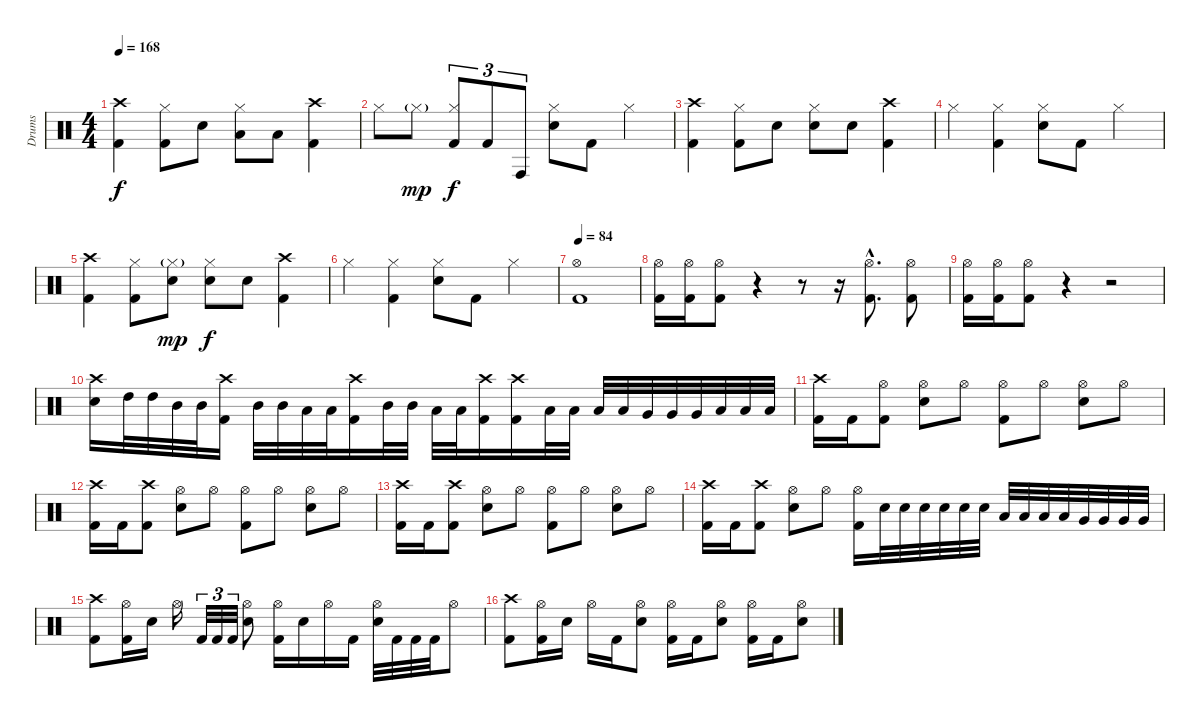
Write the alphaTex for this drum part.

\track ("Drums" "Drums") {instrument percussion}
\staff {score}
\articulation defaults
\ts (4 4)
\tempo 168
\clef neutral
\ks c
("Crash high (hit)" "Kick (hit) 2").4{dy f} ("Hi-Hat (closed)" "Kick (hit) 2").8 "Electric Snare (hit)".8 ("Hi-Hat (closed)" "Low Tom (hit)").8 "Low Tom (hit)".8 ("Crash high (hit)" "Kick (hit) 2").4 |
"Hi-Hat (closed)".8 "Hi-Hat (closed)"{g}.8{dy mp} ("Hi-Hat (closed)" "Kick (hit) 2").8{tu (3 2) dy f} "Kick (hit) 2".8{tu (3 2)} "Conga high (hit)".8{tu (3 2)} ("Hi-Hat (closed)" "Electric Snare (hit)").8 "Kick (hit) 2".8 "Hi-Hat (closed)".4 |
("Crash high (hit)" "Kick (hit) 2").4 ("Hi-Hat (closed)" "Kick (hit) 2").8 "Electric Snare (hit)".8 ("Hi-Hat (closed)" "Electric Snare (hit)").8 "Electric Snare (hit)".8 ("Crash high (hit)" "Kick (hit) 2").4 |
"Hi-Hat (closed)".4 ("Hi-Hat (closed)" "Kick (hit) 2").4 ("Hi-Hat (closed)" "Electric Snare (hit)").8 "Kick (hit) 2".8 "Hi-Hat (closed)".4 |
("Crash high (hit)" "Kick (hit) 2").4 ("Hi-Hat (closed)" "Kick (hit) 2").8 ("Hi-Hat (closed)"{g} "Electric Snare (hit)").8{dy mp} ("Hi-Hat (closed)" "Electric Snare (hit)").8{dy f} "Electric Snare (hit)".8 ("Crash high (hit)" "Kick (hit) 2").4 |
"Hi-Hat (closed)".4 ("Hi-Hat (closed)" "Kick (hit) 2").4 ("Hi-Hat (closed)" "Electric Snare (hit)").8 "Kick (hit) 2".8 "Hi-Hat (closed)".4 |
\tempo 84
("Hi-Hat (open)" "Kick (hit) 2").1 |
("Hi-Hat (open)" "Kick (hit) 2").16 ("Hi-Hat (open)" "Kick (hit) 2").16 ("Hi-Hat (open)" "Kick (hit) 2").8 r.4 r.8 r.16 ("Hi-Hat (open)"{hac} "Kick (hit) 2"{hac}).8{d} ("Hi-Hat (open)" "Kick (hit) 2").8 |
("Hi-Hat (open)" "Kick (hit) 2").16 ("Hi-Hat (open)" "Kick (hit) 2").16 ("Hi-Hat (open)" "Kick (hit) 2").8 r.4 r.2 |
("Crash high (hit)" "Electric Snare (hit)").16 "High Tom (hit)".32 "High Tom (hit)".32 "Mid Tom (hit)".32 "Mid Tom (hit)".32 ("Crash high (hit)" "Kick (hit) 2").16 "Mid Tom (hit)".32 "Mid Tom (hit)".32 "Low Tom (hit)".32 "Low Tom (hit)".32 ("Crash high (hit)" "Kick (hit) 2").16 "Mid Tom (hit)".32 "Mid Tom (hit)".32 "Low Tom (hit)".32 "Low Tom (hit)".32 ("Crash high (hit)" "Kick (hit) 2").16 ("Crash high (hit)" "Kick (hit) 2").16 "Low Tom (hit)".32 "Low Tom (hit)".32 "Low Tom (hit)".32 "Low Tom (hit)".32 "Very Low Tom (hit)".32 "Very Low Tom (hit)".32 "Very Low Tom (hit)".32 "Low Floor Tom (hit)".32 "Low Floor Tom (hit)".32 "Low Floor Tom (hit)".32 |
("Crash high (hit)" "Kick (hit) 2").16 "Kick (hit) 2".16 ("Hi-Hat (open)" "Kick (hit) 2").8 ("Hi-Hat (open)" "Electric Snare (hit)").8 "Hi-Hat (open)".8 ("Hi-Hat (open)" "Kick (hit) 2").8 "Hi-Hat (open)".8 ("Hi-Hat (open)" "Electric Snare (hit)").8 "Hi-Hat (open)".8 |
("Crash high (hit)" "Kick (hit) 2").16 "Kick (hit) 2".16 ("Crash high (hit)" "Kick (hit) 2").8 ("Hi-Hat (open)" "Electric Snare (hit)").8 "Hi-Hat (open)".8 ("Hi-Hat (open)" "Kick (hit) 2").8 "Hi-Hat (open)".8 ("Hi-Hat (open)" "Electric Snare (hit)").8 "Hi-Hat (open)".8 |
("Crash high (hit)" "Kick (hit) 2").16 "Kick (hit) 2".16 ("Crash high (hit)" "Kick (hit) 2").8 ("Hi-Hat (open)" "Electric Snare (hit)").8 "Hi-Hat (open)".8 ("Hi-Hat (open)" "Kick (hit) 2").8 "Hi-Hat (open)".8 ("Hi-Hat (open)" "Electric Snare (hit)").8 "Hi-Hat (open)".8 |
("Crash high (hit)" "Kick (hit) 2").16 "Kick (hit) 2".16 ("Crash high (hit)" "Kick (hit) 2").8 ("Hi-Hat (open)" "Electric Snare (hit)").8 "Hi-Hat (open)".8 ("Hi-Hat (open)" "Kick (hit) 2").16 "Electric Snare (hit)".32 "Electric Snare (hit)".32 "Electric Snare (hit)".32 "Electric Snare (hit)".32 "Electric Snare (hit)".32 "Electric Snare (hit)".32 "Low Tom (hit)".32 "Low Tom (hit)".32 "Low Tom (hit)".32 "Low Tom (hit)".32 "Very Low Tom (hit)".32 "Very Low Tom (hit)".32 "Very Low Tom (hit)".32 "Very Low Tom (hit)".32 |
("Crash high (hit)" "Kick (hit) 2").8 ("Hi-Hat (open)" "Kick (hit) 2").16 "Electric Snare (hit)".16 "Hi-Hat (open)".16 "Kick (hit) 2".32{tu (3 2)} "Kick (hit) 2".32{tu (3 2)} "Kick (hit) 2".32{tu (3 2)} ("Hi-Hat (open)" "Electric Snare (hit)").8 ("Hi-Hat (open)" "Kick (hit) 2").16 "Electric Snare (hit)".16 "Hi-Hat (open)".16 "Kick (hit) 2".16 ("Hi-Hat (open)" "Electric Snare (hit)").32 "Kick (hit) 2".32 "Kick (hit) 2".32 "Kick (hit) 2".32 "Hi-Hat (open)".8 |
("Crash high (hit)" "Kick (hit) 2").8 ("Hi-Hat (open)" "Kick (hit) 2").16 "Electric Snare (hit)".16 "Hi-Hat (open)".16 "Kick (hit) 2".16 ("Hi-Hat (open)" "Electric Snare (hit)").8 ("Hi-Hat (open)" "Kick (hit) 2").16 "Kick (hit) 2".16 ("Hi-Hat (open)" "Electric Snare (hit)").8 ("Hi-Hat (open)" "Kick (hit) 2").16 "Kick (hit) 2".16 ("Hi-Hat (open)" "Electric Snare (hit)").8
